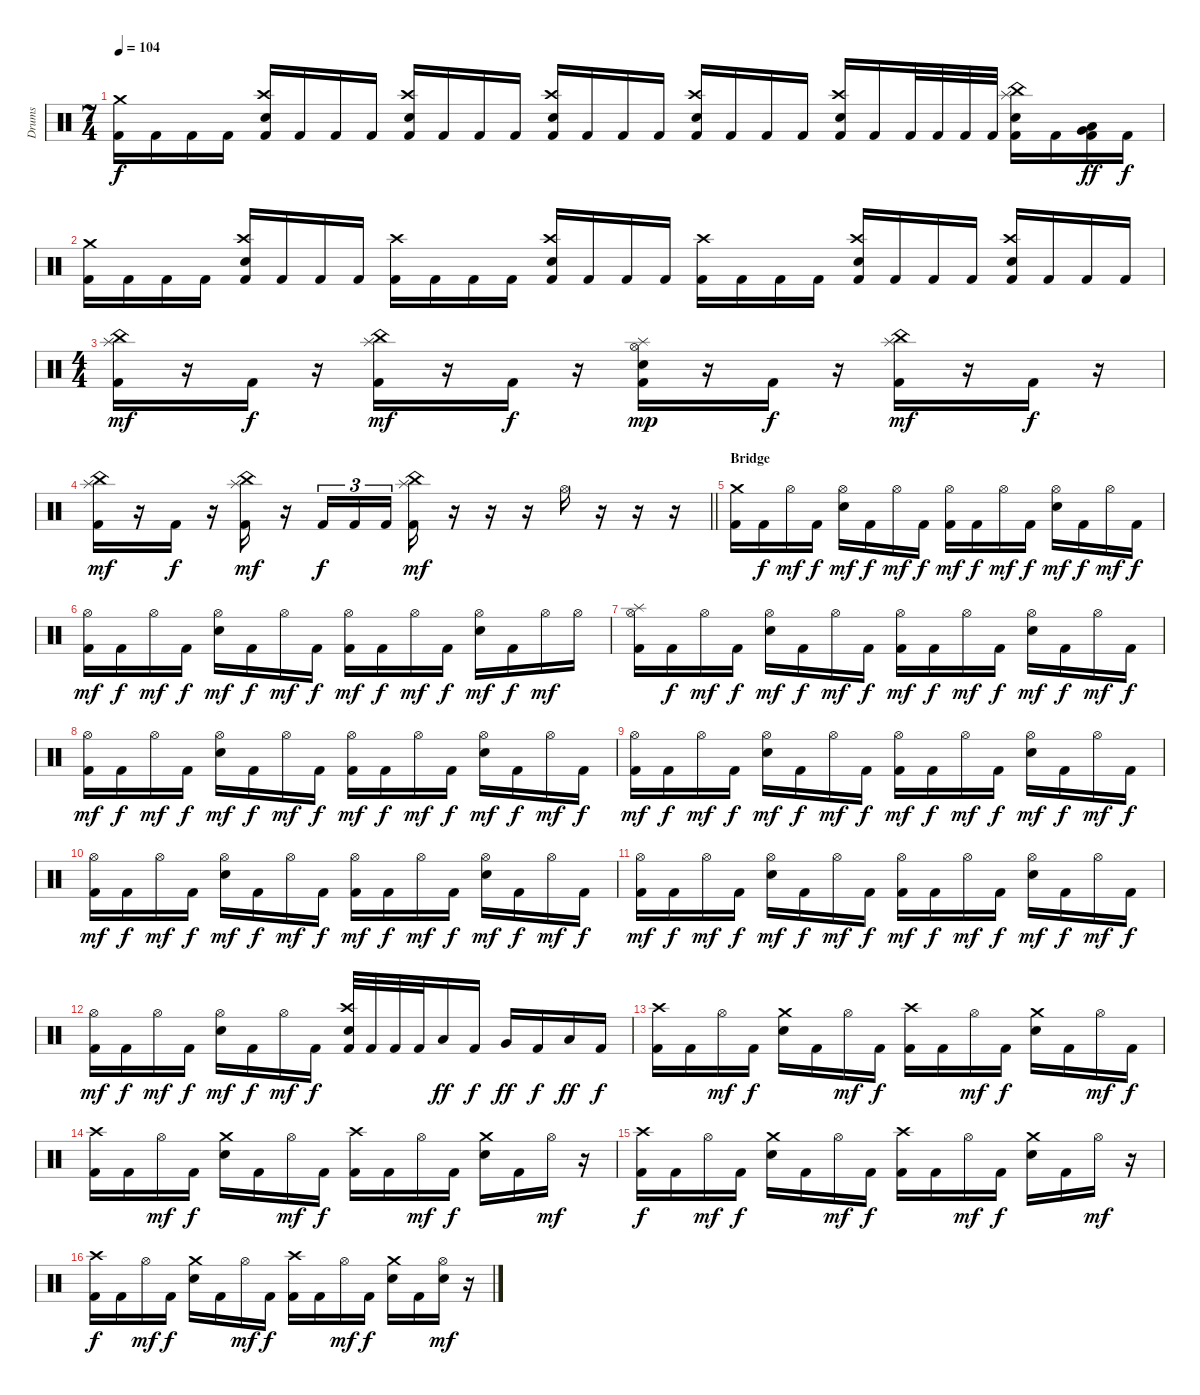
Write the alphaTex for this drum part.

\track ("Drums" "Drums") {instrument percussion}
\staff {score}
\articulation defaults
\ts (7 4)
\tempo 104
\clef neutral
\ks c
("Crash medium (hit)" "Kick (hit) 2").16{dy f} "Kick (hit) 2".16 "Kick (hit) 2".16 "Kick (hit) 2".16 ("Crash high (hit)" "Snare (hit) 2" "Kick (hit) 2").16 "Kick (hit) 2".16 "Kick (hit) 2".16 "Kick (hit) 2".16 ("Crash high (hit)" "Snare (hit) 2" "Kick (hit) 2").16 "Kick (hit) 2".16 "Kick (hit) 2".16 "Kick (hit) 2".16 ("Crash high (hit)" "Snare (hit) 2" "Kick (hit) 2").16 "Kick (hit) 2".16 "Kick (hit) 2".16 "Kick (hit) 2".16 ("Crash high (hit)" "Snare (hit) 2" "Kick (hit) 2").16 "Kick (hit) 2".16 "Kick (hit) 2".16 "Kick (hit) 2".16 ("Crash high (hit)" "Snare (hit) 2" "Kick (hit) 2").16 "Kick (hit) 2".16 "Kick (hit) 2".32 "Kick (hit) 2".32 "Kick (hit) 2".32 "Kick (hit) 2".32 ("China (hit)" "Splash (hit)" "Snare (hit) 2" "Kick (hit) 2").16 "Kick (hit) 2".16 ("Very Low Tom (hit)" "Low Floor Tom (hit)" "Kick (hit) 2").16{dy ff} "Kick (hit) 2".16{dy f} |
("Crash medium (hit)" "Kick (hit) 2").16 "Kick (hit) 2".16 "Kick (hit) 2".16 "Kick (hit) 2".16 ("Crash high (hit)" "Snare (hit) 2" "Kick (hit) 2").16 "Kick (hit) 2".16 "Kick (hit) 2".16 "Kick (hit) 2".16 ("Crash high (hit)" "Kick (hit) 2").16 "Kick (hit) 2".16 "Kick (hit) 2".16 "Kick (hit) 2".16 ("Crash high (hit)" "Snare (hit) 2" "Kick (hit) 2").16 "Kick (hit) 2".16 "Kick (hit) 2".16 "Kick (hit) 2".16 ("Crash high (hit)" "Kick (hit) 2").16 "Kick (hit) 2".16 "Kick (hit) 2".16 "Kick (hit) 2".16 ("Crash high (hit)" "Snare (hit) 2" "Kick (hit) 2").16 "Kick (hit) 2".16 "Kick (hit) 2".16 "Kick (hit) 2".16 ("Crash high (hit)" "Snare (hit) 2" "Kick (hit) 2").16 "Kick (hit) 2".16 "Kick (hit) 2".16 "Kick (hit) 2".16 |
\ts (4 4)
("China (hit)" "Splash (hit)" "Kick (hit) 2").16{dy mf} r.16 "Kick (hit) 2".16{dy f} r.16 ("China (hit)" "Splash (hit)" "Kick (hit) 2").16{dy mf} r.16 "Kick (hit) 2".16{dy f} r.16 ("Splash (hit)" "Hi-Hat (open)" "Snare (hit) 2" "Kick (hit) 2").16{dy mp} r.16 "Kick (hit) 2".16{dy f} r.16 ("China (hit)" "Splash (hit)" "Kick (hit) 2").16{dy mf} r.16 "Kick (hit) 2".16{dy f} r.16 |
\barLineRight lightlight
("China (hit)" "Splash (hit)" "Kick (hit) 2").16{dy mf} r.16 "Kick (hit) 2".16{dy f} r.16 ("China (hit)" "Splash (hit)" "Kick (hit) 2").16{dy mf} r.16 "Kick (hit) 2".16{tu (3 2) dy f} "Kick (hit) 2".16{tu (3 2)} "Kick (hit) 2".16{tu (3 2)} ("China (hit)" "Splash (hit)" "Kick (hit) 2").16{dy mf} r.16 r.16 r.16 "Hi-Hat (open)".16 r.16 r.16 r.16 |
\section ("" "Bridge")
("Crash medium (hit)" "Kick (hit) 2").16 "Kick (hit) 2".16{dy f} "Hi-Hat (open)".16{dy mf} "Kick (hit) 2".16{dy f} ("Hi-Hat (open)" "Snare (hit) 2").16{dy mf} "Kick (hit) 2".16{dy f} "Hi-Hat (open)".16{dy mf} "Kick (hit) 2".16{dy f} ("Hi-Hat (open)" "Kick (hit) 2").16{dy mf} "Kick (hit) 2".16{dy f} "Hi-Hat (open)".16{dy mf} "Kick (hit) 2".16{dy f} ("Hi-Hat (open)" "Snare (hit) 2").16{dy mf} "Kick (hit) 2".16{dy f} "Hi-Hat (open)".16{dy mf} "Kick (hit) 2".16{dy f} |
("Hi-Hat (open)" "Kick (hit) 2").16{dy mf} "Kick (hit) 2".16{dy f} "Hi-Hat (open)".16{dy mf} "Kick (hit) 2".16{dy f} ("Hi-Hat (open)" "Snare (hit) 2").16{dy mf} "Kick (hit) 2".16{dy f} "Hi-Hat (open)".16{dy mf} "Kick (hit) 2".16{dy f} ("Hi-Hat (open)" "Kick (hit) 2").16{dy mf} "Kick (hit) 2".16{dy f} "Hi-Hat (open)".16{dy mf} "Kick (hit) 2".16{dy f} ("Hi-Hat (open)" "Snare (hit) 2").16{dy mf} "Kick (hit) 2".16{dy f} "Hi-Hat (open)".16{dy mf} "Hi-Hat (open)".16 |
("Splash (hit)" "Hi-Hat (open)" "Kick (hit) 2").16 "Kick (hit) 2".16{dy f} "Hi-Hat (open)".16{dy mf} "Kick (hit) 2".16{dy f} ("Hi-Hat (open)" "Snare (hit) 2").16{dy mf} "Kick (hit) 2".16{dy f} "Hi-Hat (open)".16{dy mf} "Kick (hit) 2".16{dy f} ("Hi-Hat (open)" "Kick (hit) 2").16{dy mf} "Kick (hit) 2".16{dy f} "Hi-Hat (open)".16{dy mf} "Kick (hit) 2".16{dy f} ("Hi-Hat (open)" "Snare (hit) 2").16{dy mf} "Kick (hit) 2".16{dy f} "Hi-Hat (open)".16{dy mf} "Kick (hit) 2".16{dy f} |
("Hi-Hat (open)" "Kick (hit) 2").16{dy mf} "Kick (hit) 2".16{dy f} "Hi-Hat (open)".16{dy mf} "Kick (hit) 2".16{dy f} ("Hi-Hat (open)" "Snare (hit) 2").16{dy mf} "Kick (hit) 2".16{dy f} "Hi-Hat (open)".16{dy mf} "Kick (hit) 2".16{dy f} ("Hi-Hat (open)" "Kick (hit) 2").16{dy mf} "Kick (hit) 2".16{dy f} "Hi-Hat (open)".16{dy mf} "Kick (hit) 2".16{dy f} ("Hi-Hat (open)" "Snare (hit) 2").16{dy mf} "Kick (hit) 2".16{dy f} "Hi-Hat (open)".16{dy mf} "Kick (hit) 2".16{dy f} |
("Hi-Hat (open)" "Kick (hit) 2").16{dy mf} "Kick (hit) 2".16{dy f} "Hi-Hat (open)".16{dy mf} "Kick (hit) 2".16{dy f} ("Hi-Hat (open)" "Snare (hit) 2").16{dy mf} "Kick (hit) 2".16{dy f} "Hi-Hat (open)".16{dy mf} "Kick (hit) 2".16{dy f} ("Hi-Hat (open)" "Kick (hit) 2").16{dy mf} "Kick (hit) 2".16{dy f} "Hi-Hat (open)".16{dy mf} "Kick (hit) 2".16{dy f} ("Hi-Hat (open)" "Snare (hit) 2").16{dy mf} "Kick (hit) 2".16{dy f} "Hi-Hat (open)".16{dy mf} "Kick (hit) 2".16{dy f} |
("Hi-Hat (open)" "Kick (hit) 2").16{dy mf} "Kick (hit) 2".16{dy f} "Hi-Hat (open)".16{dy mf} "Kick (hit) 2".16{dy f} ("Hi-Hat (open)" "Snare (hit) 2").16{dy mf} "Kick (hit) 2".16{dy f} "Hi-Hat (open)".16{dy mf} "Kick (hit) 2".16{dy f} ("Hi-Hat (open)" "Kick (hit) 2").16{dy mf} "Kick (hit) 2".16{dy f} "Hi-Hat (open)".16{dy mf} "Kick (hit) 2".16{dy f} ("Hi-Hat (open)" "Snare (hit) 2").16{dy mf} "Kick (hit) 2".16{dy f} "Hi-Hat (open)".16{dy mf} "Kick (hit) 2".16{dy f} |
("Hi-Hat (open)" "Kick (hit) 2").16{dy mf} "Kick (hit) 2".16{dy f} "Hi-Hat (open)".16{dy mf} "Kick (hit) 2".16{dy f} ("Hi-Hat (open)" "Snare (hit) 2").16{dy mf} "Kick (hit) 2".16{dy f} "Hi-Hat (open)".16{dy mf} "Kick (hit) 2".16{dy f} ("Hi-Hat (open)" "Kick (hit) 2").16{dy mf} "Kick (hit) 2".16{dy f} "Hi-Hat (open)".16{dy mf} "Kick (hit) 2".16{dy f} ("Hi-Hat (open)" "Snare (hit) 2").16{dy mf} "Kick (hit) 2".16{dy f} "Hi-Hat (open)".16{dy mf} "Kick (hit) 2".16{dy f} |
("Hi-Hat (open)" "Kick (hit) 2").16{dy mf} "Kick (hit) 2".16{dy f} "Hi-Hat (open)".16{dy mf} "Kick (hit) 2".16{dy f} ("Hi-Hat (open)" "Snare (hit) 2").16{dy mf} "Kick (hit) 2".16{dy f} "Hi-Hat (open)".16{dy mf} "Kick (hit) 2".16{dy f} ("Crash high (hit)" "Snare (hit) 2" "Kick (hit) 2").32 "Kick (hit) 2".32 "Kick (hit) 2".32 "Kick (hit) 2".32 "Low Tom (hit)".16{dy ff} "Kick (hit) 2".16{dy f} "Very Low Tom (hit)".16{dy ff} "Kick (hit) 2".16{dy f} "Low Floor Tom (hit)".16{dy ff} "Kick (hit) 2".16{dy f} |
("Crash high (hit)" "Kick (hit) 2").16 "Kick (hit) 2".16 "Hi-Hat (open)".16{dy mf} "Kick (hit) 2".16{dy f} ("Crash medium (hit)" "Snare (hit) 2").16 "Kick (hit) 2".16 "Hi-Hat (open)".16{dy mf} "Kick (hit) 2".16{dy f} ("Crash high (hit)" "Kick (hit) 2").16 "Kick (hit) 2".16 "Hi-Hat (open)".16{dy mf} "Kick (hit) 2".16{dy f} ("Crash medium (hit)" "Snare (hit) 2").16 "Kick (hit) 2".16 "Hi-Hat (open)".16{dy mf} "Kick (hit) 2".16{dy f} |
("Crash high (hit)" "Kick (hit) 2").16 "Kick (hit) 2".16 "Hi-Hat (open)".16{dy mf} "Kick (hit) 2".16{dy f} ("Crash medium (hit)" "Snare (hit) 2").16 "Kick (hit) 2".16 "Hi-Hat (open)".16{dy mf} "Kick (hit) 2".16{dy f} ("Crash high (hit)" "Kick (hit) 2").16 "Kick (hit) 2".16 "Hi-Hat (open)".16{dy mf} "Kick (hit) 2".16{dy f} ("Crash medium (hit)" "Snare (hit) 2").16 "Kick (hit) 2".16 "Hi-Hat (open)".16{dy mf} r.16 |
("Crash high (hit)" "Kick (hit) 2").16{dy f} "Kick (hit) 2".16 "Hi-Hat (open)".16{dy mf} "Kick (hit) 2".16{dy f} ("Crash medium (hit)" "Snare (hit) 2").16 "Kick (hit) 2".16 "Hi-Hat (open)".16{dy mf} "Kick (hit) 2".16{dy f} ("Crash high (hit)" "Kick (hit) 2").16 "Kick (hit) 2".16 "Hi-Hat (open)".16{dy mf} "Kick (hit) 2".16{dy f} ("Crash medium (hit)" "Snare (hit) 2").16 "Kick (hit) 2".16 "Hi-Hat (open)".16{dy mf} r.16 |
("Crash high (hit)" "Kick (hit) 2").16{dy f} "Kick (hit) 2".16 "Hi-Hat (open)".16{dy mf} "Kick (hit) 2".16{dy f} ("Crash medium (hit)" "Snare (hit) 2").16 "Kick (hit) 2".16 "Hi-Hat (open)".16{dy mf} "Kick (hit) 2".16{dy f} ("Crash high (hit)" "Kick (hit) 2").16 "Kick (hit) 2".16 "Hi-Hat (open)".16{dy mf} "Kick (hit) 2".16{dy f} ("Crash medium (hit)" "Snare (hit) 2").16 "Kick (hit) 2".16 ("Hi-Hat (open)" "Snare (hit) 2").16{dy mf} r.16
